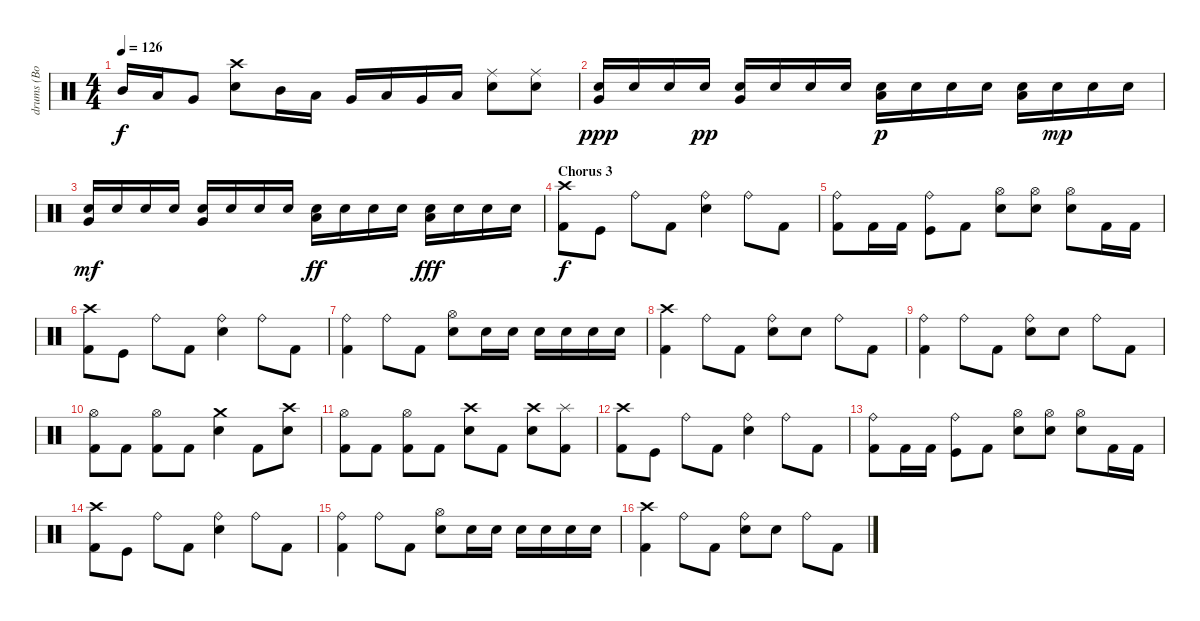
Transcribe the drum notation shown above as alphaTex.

\track (" drums (Bob Bryar)" " drums (Bo") {instrument percussion}
\staff {score}
\articulation defaults
\ts (4 4)
\tempo 126
\clef neutral
\ks c "Mid Tom (hit)".16{dy f} "Low Tom (hit)".16 "Very Low Tom (hit)".8
("Crash high (hit)" "Electric Snare (hit)").8 "Mid Tom (hit)".16 "Low Tom (hit)".16 "Very Low Tom (hit)".16 "Low Floor Tom (hit)".16 "Very Low Tom (hit)".16 "Low Tom (hit)".16 ("Ride (middle)" "Electric Snare (hit)").8 ("Ride (middle)" "Electric Snare (hit)").8 |
("Snare (hit) 2" "Very Low Tom (hit)").16{dy ppp} "Snare (hit) 2".16 "Snare (hit) 2".16 "Snare (hit) 2".16{dy pp} ("Snare (hit) 2" "Very Low Tom (hit)").16 "Snare (hit) 2".16 "Snare (hit) 2".16 "Snare (hit) 2".16 ("Snare (hit) 2" "Low Tom (hit)").16{dy p} "Snare (hit) 2".16 "Snare (hit) 2".16 "Snare (hit) 2".16 ("Snare (hit) 2" "Low Tom (hit)").16 "Snare (hit) 2".16{dy mp} "Snare (hit) 2".16 "Snare (hit) 2".16 |
("Snare (hit) 2" "Very Low Tom (hit)").16{dy mf} "Snare (hit) 2".16 "Snare (hit) 2".16 "Snare (hit) 2".16 ("Snare (hit) 2" "Very Low Tom (hit)").16 "Snare (hit) 2".16 "Snare (hit) 2".16 "Snare (hit) 2".16 ("Snare (hit) 2" "Low Tom (hit)").16{dy ff} "Snare (hit) 2".16 "Snare (hit) 2".16 "Snare (hit) 2".16 ("Snare (hit) 2" "Low Tom (hit)").16{dy fff} "Snare (hit) 2".16 "Snare (hit) 2".16 "Snare (hit) 2".16 |
\section ("" "Chorus 3")
("Kick (hit) 2" "Crash high (hit)").8{dy f} "Kick (hit)".8 "Ride (bell)".8 "Kick (hit) 2".8 ("Ride (bell)" "Snare (hit) 2").4 "Ride (bell)".8 "Kick (hit) 2".8 |
("Ride (bell)" "Kick (hit) 2").8 "Kick (hit) 2".16 "Kick (hit) 2".16 ("Ride (bell)" "Kick (hit)").8 "Kick (hit) 2".8 ("Hi-Hat (open)" "Snare (hit) 2").8 ("Hi-Hat (open)" "Snare (hit) 2").8 ("Hi-Hat (open)" "Snare (hit) 2").8 "Kick (hit) 2".16 "Kick (hit) 2".16 |
("Kick (hit) 2" "Crash high (hit)").8 "Kick (hit)".8 "Ride (bell)".8 "Kick (hit) 2".8 ("Ride (bell)" "Snare (hit) 2").4 "Ride (bell)".8 "Kick (hit) 2".8 |
("Ride (bell)" "Kick (hit) 2").4 "Ride (bell)".8 "Kick (hit) 2".8 ("Hi-Hat (open)" "Snare (hit) 2").8 "Snare (hit) 2".16 "Snare (hit) 2".16 "Snare (hit) 2".16 "Snare (hit) 2".16 "Snare (hit) 2".16 "Snare (hit) 2".16 |
("Crash high (hit)" "Kick (hit) 2").4 "Ride (bell)".8 "Kick (hit) 2".8 ("Ride (bell)" "Snare (hit) 2").8 "Snare (hit) 2".8 "Ride (bell)".8 "Kick (hit) 2".8 |
("Ride (bell)" "Kick (hit) 2").4 "Ride (bell)".8 "Kick (hit) 2".8 ("Ride (bell)" "Snare (hit) 2").8 "Snare (hit) 2".8 "Ride (bell)".8 "Kick (hit) 2".8 |
("Hi-Hat (open)" "Kick (hit) 2").8 "Kick (hit) 2".8 ("Hi-Hat (open)" "Kick (hit) 2").8 "Kick (hit) 2".8 ("Crash medium (hit)" "Snare (hit) 2").4 "Kick (hit) 2".8 ("Crash high (hit)" "Snare (hit) 2").8 |
("Hi-Hat (open)" "Kick (hit) 2").8 "Kick (hit) 2".8 ("Hi-Hat (open)" "Kick (hit) 2").8 "Kick (hit) 2".8 ("Crash high (hit)" "Snare (hit) 2").8 "Kick (hit) 2".8 ("Crash high (hit)" "Snare (hit) 2").8 ("Splash (hit)" "Kick (hit) 2").8 |
("Kick (hit) 2" "Crash high (hit)").8 "Kick (hit)".8 "Ride (bell)".8 "Kick (hit) 2".8 ("Ride (bell)" "Snare (hit) 2").4 "Ride (bell)".8 "Kick (hit) 2".8 |
("Ride (bell)" "Kick (hit) 2").8 "Kick (hit) 2".16 "Kick (hit) 2".16 ("Ride (bell)" "Kick (hit)").8 "Kick (hit) 2".8 ("Hi-Hat (open)" "Snare (hit) 2").8 ("Hi-Hat (open)" "Snare (hit) 2").8 ("Hi-Hat (open)" "Snare (hit) 2").8 "Kick (hit) 2".16 "Kick (hit) 2".16 |
("Kick (hit) 2" "Crash high (hit)").8 "Kick (hit)".8 "Ride (bell)".8 "Kick (hit) 2".8 ("Ride (bell)" "Snare (hit) 2").4 "Ride (bell)".8 "Kick (hit) 2".8 |
("Ride (bell)" "Kick (hit) 2").4 "Ride (bell)".8 "Kick (hit) 2".8 ("Hi-Hat (open)" "Snare (hit) 2").8 "Snare (hit) 2".16 "Snare (hit) 2".16 "Snare (hit) 2".16 "Snare (hit) 2".16 "Snare (hit) 2".16 "Snare (hit) 2".16 |
("Crash high (hit)" "Kick (hit) 2").4 "Ride (bell)".8 "Kick (hit) 2".8 ("Ride (bell)" "Snare (hit) 2").8 "Snare (hit) 2".8 "Ride (bell)".8 "Kick (hit) 2".8
